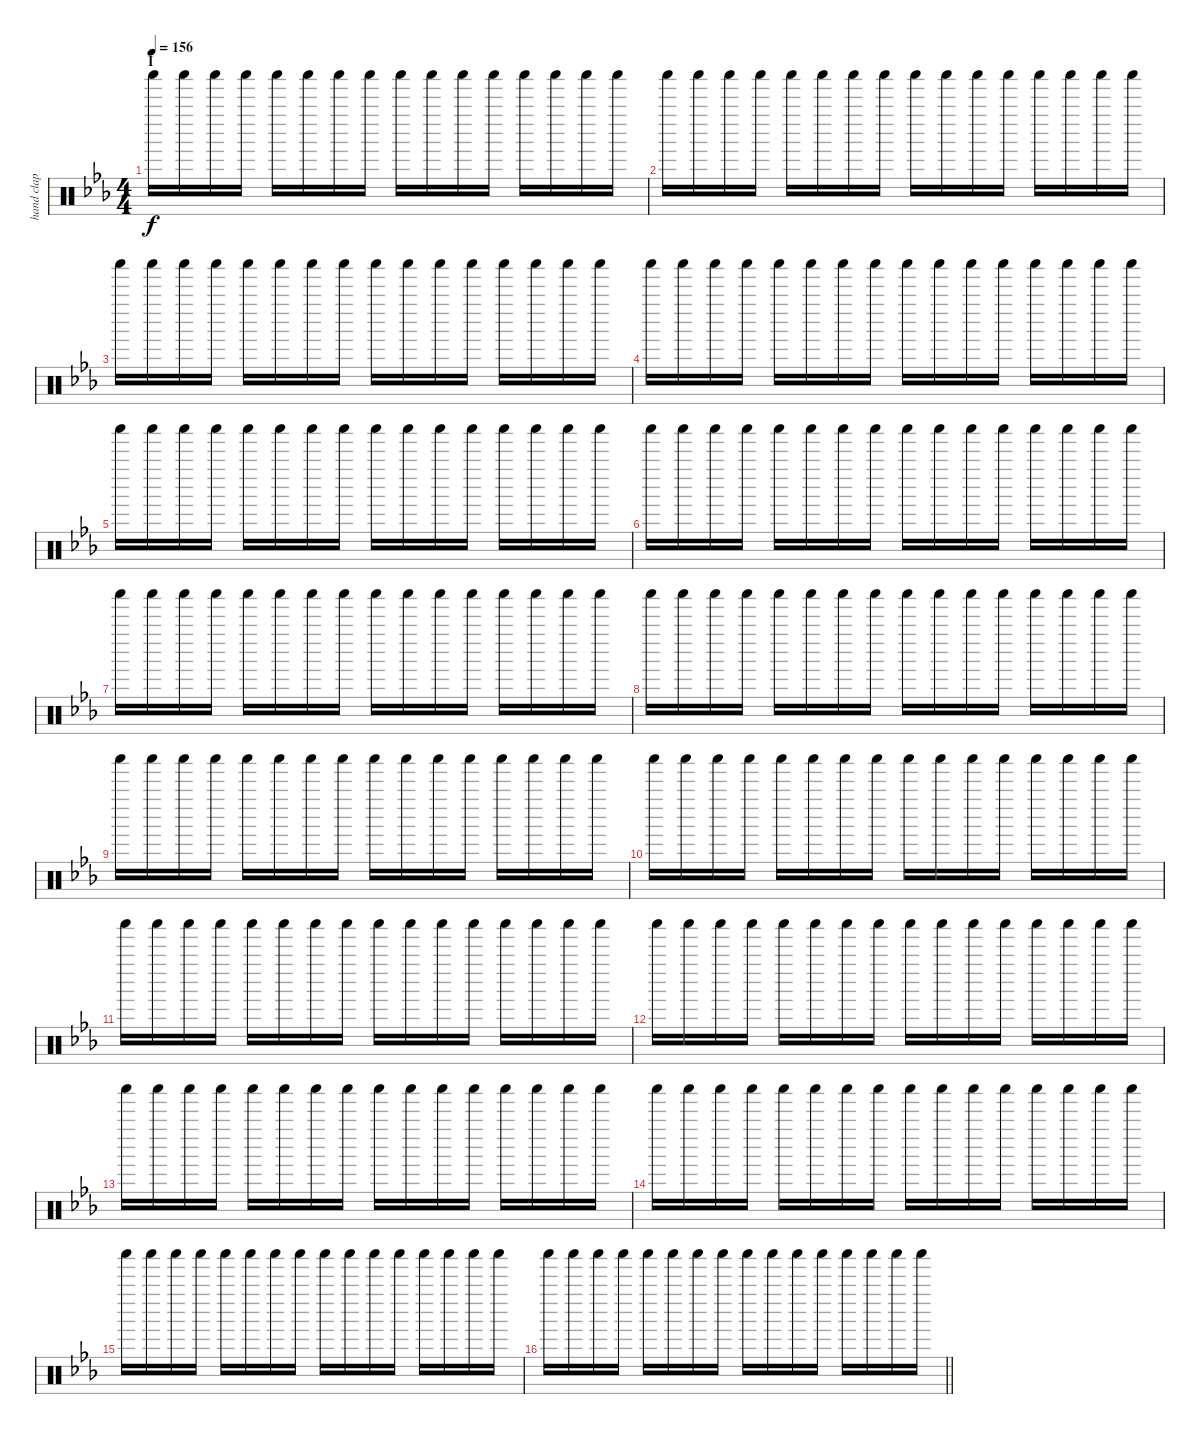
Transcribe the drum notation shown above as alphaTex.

\track ("hand clap + shaker" "hand clap ") {instrument percussion}
\staff {score}
\articulation defaults
\ts (4 4)
\section ("" "I")
\tempo 156
\clef neutral
\ks eb "Shaker (hit)".16{dy f} "Shaker (hit)".16 "Shaker (hit)".16 "Shaker (hit)".16 "Shaker (hit)".16 "Shaker (hit)".16 "Shaker (hit)".16 "Shaker (hit)".16 "Shaker (hit)".16 "Shaker (hit)".16 "Shaker (hit)".16 "Shaker (hit)".16 "Shaker (hit)".16 "Shaker (hit)".16 "Shaker (hit)".16 "Shaker (hit)".16
|
"Shaker (hit)".16 "Shaker (hit)".16 "Shaker (hit)".16 "Shaker (hit)".16 "Shaker (hit)".16 "Shaker (hit)".16 "Shaker (hit)".16 "Shaker (hit)".16 "Shaker (hit)".16 "Shaker (hit)".16 "Shaker (hit)".16 "Shaker (hit)".16 "Shaker (hit)".16 "Shaker (hit)".16 "Shaker (hit)".16 "Shaker (hit)".16 |
"Shaker (hit)".16 "Shaker (hit)".16 "Shaker (hit)".16 "Shaker (hit)".16 "Shaker (hit)".16 "Shaker (hit)".16 "Shaker (hit)".16 "Shaker (hit)".16 "Shaker (hit)".16 "Shaker (hit)".16 "Shaker (hit)".16 "Shaker (hit)".16 "Shaker (hit)".16 "Shaker (hit)".16 "Shaker (hit)".16 "Shaker (hit)".16 |
"Shaker (hit)".16 "Shaker (hit)".16 "Shaker (hit)".16 "Shaker (hit)".16 "Shaker (hit)".16 "Shaker (hit)".16 "Shaker (hit)".16 "Shaker (hit)".16 "Shaker (hit)".16 "Shaker (hit)".16 "Shaker (hit)".16 "Shaker (hit)".16 "Shaker (hit)".16 "Shaker (hit)".16 "Shaker (hit)".16 "Shaker (hit)".16 |
"Shaker (hit)".16 "Shaker (hit)".16 "Shaker (hit)".16 "Shaker (hit)".16 "Shaker (hit)".16 "Shaker (hit)".16 "Shaker (hit)".16 "Shaker (hit)".16 "Shaker (hit)".16 "Shaker (hit)".16 "Shaker (hit)".16 "Shaker (hit)".16 "Shaker (hit)".16 "Shaker (hit)".16 "Shaker (hit)".16 "Shaker (hit)".16 |
"Shaker (hit)".16 "Shaker (hit)".16 "Shaker (hit)".16 "Shaker (hit)".16 "Shaker (hit)".16 "Shaker (hit)".16 "Shaker (hit)".16 "Shaker (hit)".16 "Shaker (hit)".16 "Shaker (hit)".16 "Shaker (hit)".16 "Shaker (hit)".16 "Shaker (hit)".16 "Shaker (hit)".16 "Shaker (hit)".16 "Shaker (hit)".16 |
"Shaker (hit)".16 "Shaker (hit)".16 "Shaker (hit)".16 "Shaker (hit)".16 "Shaker (hit)".16 "Shaker (hit)".16 "Shaker (hit)".16 "Shaker (hit)".16 "Shaker (hit)".16 "Shaker (hit)".16 "Shaker (hit)".16 "Shaker (hit)".16 "Shaker (hit)".16 "Shaker (hit)".16 "Shaker (hit)".16 "Shaker (hit)".16 |
"Shaker (hit)".16 "Shaker (hit)".16 "Shaker (hit)".16 "Shaker (hit)".16 "Shaker (hit)".16 "Shaker (hit)".16 "Shaker (hit)".16 "Shaker (hit)".16 "Shaker (hit)".16 "Shaker (hit)".16 "Shaker (hit)".16 "Shaker (hit)".16 "Shaker (hit)".16 "Shaker (hit)".16 "Shaker (hit)".16 "Shaker (hit)".16 |
"Shaker (hit)".16 "Shaker (hit)".16 "Shaker (hit)".16 "Shaker (hit)".16 "Shaker (hit)".16 "Shaker (hit)".16 "Shaker (hit)".16 "Shaker (hit)".16 "Shaker (hit)".16 "Shaker (hit)".16 "Shaker (hit)".16 "Shaker (hit)".16 "Shaker (hit)".16 "Shaker (hit)".16 "Shaker (hit)".16 "Shaker (hit)".16 |
"Shaker (hit)".16 "Shaker (hit)".16 "Shaker (hit)".16 "Shaker (hit)".16 "Shaker (hit)".16 "Shaker (hit)".16 "Shaker (hit)".16 "Shaker (hit)".16 "Shaker (hit)".16 "Shaker (hit)".16 "Shaker (hit)".16 "Shaker (hit)".16 "Shaker (hit)".16 "Shaker (hit)".16 "Shaker (hit)".16 "Shaker (hit)".16 |
"Shaker (hit)".16 "Shaker (hit)".16 "Shaker (hit)".16 "Shaker (hit)".16 "Shaker (hit)".16 "Shaker (hit)".16 "Shaker (hit)".16 "Shaker (hit)".16 "Shaker (hit)".16 "Shaker (hit)".16 "Shaker (hit)".16 "Shaker (hit)".16 "Shaker (hit)".16 "Shaker (hit)".16 "Shaker (hit)".16 "Shaker (hit)".16 |
"Shaker (hit)".16 "Shaker (hit)".16 "Shaker (hit)".16 "Shaker (hit)".16 "Shaker (hit)".16 "Shaker (hit)".16 "Shaker (hit)".16 "Shaker (hit)".16 "Shaker (hit)".16 "Shaker (hit)".16 "Shaker (hit)".16 "Shaker (hit)".16 "Shaker (hit)".16 "Shaker (hit)".16 "Shaker (hit)".16 "Shaker (hit)".16 |
"Shaker (hit)".16 "Shaker (hit)".16 "Shaker (hit)".16 "Shaker (hit)".16 "Shaker (hit)".16 "Shaker (hit)".16 "Shaker (hit)".16 "Shaker (hit)".16 "Shaker (hit)".16 "Shaker (hit)".16 "Shaker (hit)".16 "Shaker (hit)".16 "Shaker (hit)".16 "Shaker (hit)".16 "Shaker (hit)".16 "Shaker (hit)".16 |
"Shaker (hit)".16 "Shaker (hit)".16 "Shaker (hit)".16 "Shaker (hit)".16 "Shaker (hit)".16 "Shaker (hit)".16 "Shaker (hit)".16 "Shaker (hit)".16 "Shaker (hit)".16 "Shaker (hit)".16 "Shaker (hit)".16 "Shaker (hit)".16 "Shaker (hit)".16 "Shaker (hit)".16 "Shaker (hit)".16 "Shaker (hit)".16 |
"Shaker (hit)".16 "Shaker (hit)".16 "Shaker (hit)".16 "Shaker (hit)".16 "Shaker (hit)".16 "Shaker (hit)".16 "Shaker (hit)".16 "Shaker (hit)".16 "Shaker (hit)".16 "Shaker (hit)".16 "Shaker (hit)".16 "Shaker (hit)".16 "Shaker (hit)".16 "Shaker (hit)".16 "Shaker (hit)".16 "Shaker (hit)".16 |
\barLineRight lightlight "Shaker (hit)".16 "Shaker (hit)".16 "Shaker (hit)".16 "Shaker (hit)".16 "Shaker (hit)".16 "Shaker (hit)".16 "Shaker (hit)".16 "Shaker (hit)".16 "Shaker (hit)".16 "Shaker (hit)".16 "Shaker (hit)".16 "Shaker (hit)".16 "Shaker (hit)".16 "Shaker (hit)".16 "Shaker (hit)".16 "Shaker (hit)".16
